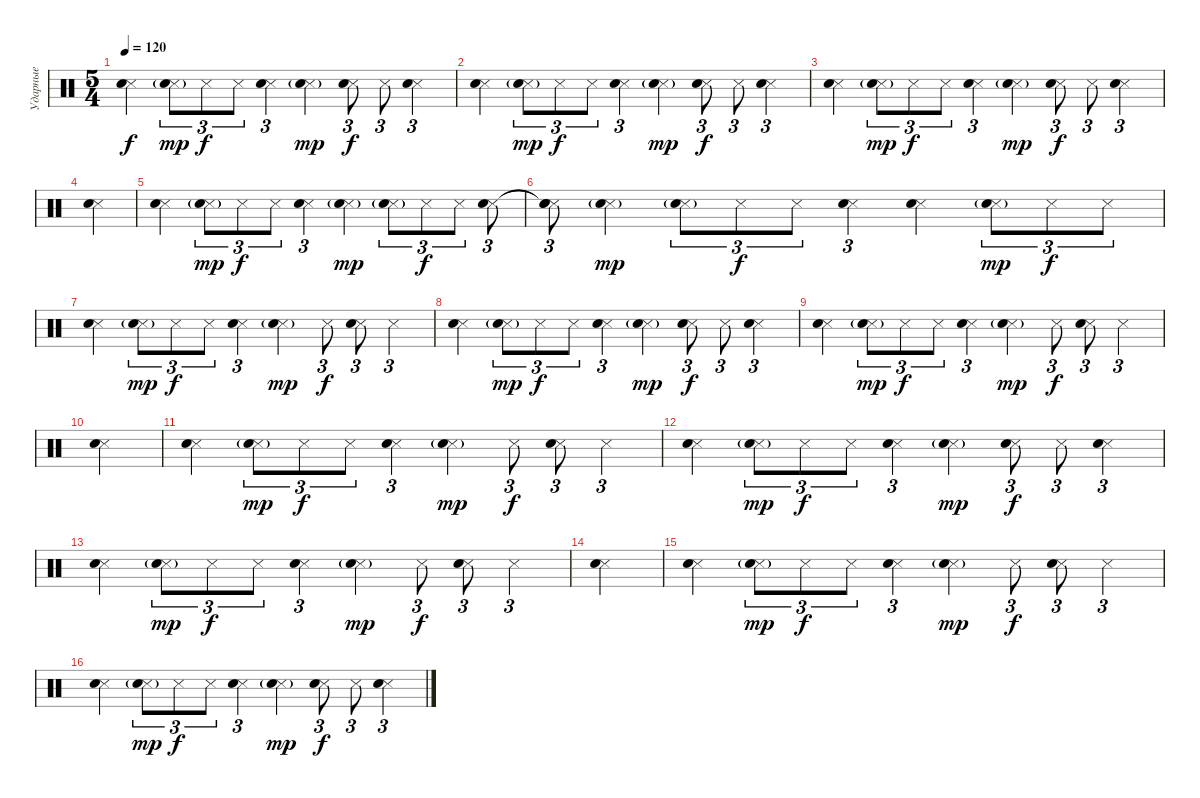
\track ("Ударные" "Ударные") {instrument percussion}
\staff {score}
\articulation defaults
\ts (5 4)
\tempo 120
\clef neutral
\ks c
("Snare (side stick) 3" "Hand Clap (hit)").4{dy f} ("Snare (side stick) 3"{g} "Hand Clap (hit)"{g}).8{tu (3 2) dy mp} "Snare (side stick) 3".8{tu (3 2) dy f} "Snare (side stick) 3".8{tu (3 2)} ("Snare (side stick) 3" "Hand Clap (hit)").4{tu (3 2)} ("Snare (side stick) 3"{g} "Hand Clap (hit)"{g}).4{dy mp} ("Snare (side stick) 3" "Hand Clap (hit)").8{tu (3 2) dy f} "Snare (side stick) 3".8{tu (3 2)} ("Snare (side stick) 3" "Hand Clap (hit)").4{tu (3 2)} |
("Snare (side stick) 3" "Hand Clap (hit)").4 ("Snare (side stick) 3"{g} "Hand Clap (hit)"{g}).8{tu (3 2) dy mp} "Snare (side stick) 3".8{tu (3 2) dy f} "Snare (side stick) 3".8{tu (3 2)} ("Snare (side stick) 3" "Hand Clap (hit)").4{tu (3 2)} ("Snare (side stick) 3"{g} "Hand Clap (hit)"{g}).4{dy mp} ("Snare (side stick) 3" "Hand Clap (hit)").8{tu (3 2) dy f} "Snare (side stick) 3".8{tu (3 2)} ("Snare (side stick) 3" "Hand Clap (hit)").4{tu (3 2)} |
("Snare (side stick) 3" "Hand Clap (hit)").4 ("Snare (side stick) 3"{g} "Hand Clap (hit)"{g}).8{tu (3 2) dy mp} "Snare (side stick) 3".8{tu (3 2) dy f} "Snare (side stick) 3".8{tu (3 2)} ("Snare (side stick) 3" "Hand Clap (hit)").4{tu (3 2)} ("Snare (side stick) 3"{g} "Hand Clap (hit)"{g}).4{dy mp} ("Snare (side stick) 3" "Hand Clap (hit)").8{tu (3 2) dy f} "Snare (side stick) 3".8{tu (3 2)} ("Snare (side stick) 3" "Hand Clap (hit)").4{tu (3 2)} |
("Snare (side stick) 3" "Hand Clap (hit)").4 |
("Snare (side stick) 3" "Hand Clap (hit)").4 ("Snare (side stick) 3"{g} "Hand Clap (hit)"{g}).8{tu (3 2) dy mp} "Snare (side stick) 3".8{tu (3 2) dy f} "Snare (side stick) 3".8{tu (3 2)} ("Snare (side stick) 3" "Hand Clap (hit)").4{tu (3 2)} ("Snare (side stick) 3"{g} "Hand Clap (hit)"{g}).4{dy mp} ("Snare (side stick) 3"{g} "Hand Clap (hit)"{g}).8{tu (3 2)} "Snare (side stick) 3".8{tu (3 2) dy f} "Snare (side stick) 3".8{tu (3 2)} ("Snare (side stick) 3" "Hand Clap (hit)").8{tu (3 2)} |
("Snare (side stick) 3"{t} "Snare (hit)"{t} "Hand Clap (hit)").8{tu (3 2)} ("Snare (side stick) 3"{g} "Hand Clap (hit)"{g}).4{dy mp} ("Snare (side stick) 3"{g} "Hand Clap (hit)"{g}).8{tu (3 2)} "Snare (side stick) 3".8{tu (3 2) dy f} "Snare (side stick) 3".8{tu (3 2)} ("Snare (side stick) 3" "Hand Clap (hit)").4{tu (3 2)} ("Snare (side stick) 3" "Hand Clap (hit)").4 ("Snare (side stick) 3"{g} "Hand Clap (hit)"{g}).8{tu (3 2) dy mp} "Snare (side stick) 3".8{tu (3 2) dy f} "Snare (side stick) 3".8{tu (3 2)} |
("Snare (side stick) 3" "Hand Clap (hit)").4 ("Snare (side stick) 3"{g} "Hand Clap (hit)"{g}).8{tu (3 2) dy mp} "Snare (side stick) 3".8{tu (3 2) dy f} "Snare (side stick) 3".8{tu (3 2)} ("Snare (side stick) 3" "Hand Clap (hit)").4{tu (3 2)} ("Snare (side stick) 3"{g} "Hand Clap (hit)"{g}).4{dy mp} "Snare (side stick) 3".8{tu (3 2) dy f} ("Snare (side stick) 3" "Hand Clap (hit)").8{tu (3 2)} "Snare (side stick) 3".4{tu (3 2)} |
("Snare (side stick) 3" "Hand Clap (hit)").4 ("Snare (side stick) 3"{g} "Hand Clap (hit)"{g}).8{tu (3 2) dy mp} "Snare (side stick) 3".8{tu (3 2) dy f} "Snare (side stick) 3".8{tu (3 2)} ("Snare (side stick) 3" "Hand Clap (hit)").4{tu (3 2)} ("Snare (side stick) 3"{g} "Hand Clap (hit)"{g}).4{dy mp} ("Snare (side stick) 3" "Hand Clap (hit)").8{tu (3 2) dy f} "Snare (side stick) 3".8{tu (3 2)} ("Snare (side stick) 3" "Hand Clap (hit)").4{tu (3 2)} |
("Snare (side stick) 3" "Hand Clap (hit)").4 ("Snare (side stick) 3"{g} "Hand Clap (hit)"{g}).8{tu (3 2) dy mp} "Snare (side stick) 3".8{tu (3 2) dy f} "Snare (side stick) 3".8{tu (3 2)} ("Snare (side stick) 3" "Hand Clap (hit)").4{tu (3 2)} ("Snare (side stick) 3"{g} "Hand Clap (hit)"{g}).4{dy mp} "Snare (side stick) 3".8{tu (3 2) dy f} ("Snare (side stick) 3" "Hand Clap (hit)").8{tu (3 2)} "Snare (side stick) 3".4{tu (3 2)} |
("Snare (side stick) 3" "Hand Clap (hit)").4 |
("Snare (side stick) 3" "Hand Clap (hit)").4 ("Snare (side stick) 3"{g} "Hand Clap (hit)"{g}).8{tu (3 2) dy mp} "Snare (side stick) 3".8{tu (3 2) dy f} "Snare (side stick) 3".8{tu (3 2)} ("Snare (side stick) 3" "Hand Clap (hit)").4{tu (3 2)} ("Snare (side stick) 3"{g} "Hand Clap (hit)"{g}).4{dy mp} "Snare (side stick) 3".8{tu (3 2) dy f} ("Snare (side stick) 3" "Hand Clap (hit)").8{tu (3 2)} "Snare (side stick) 3".4{tu (3 2)} |
("Snare (side stick) 3" "Hand Clap (hit)").4 ("Snare (side stick) 3"{g} "Hand Clap (hit)"{g}).8{tu (3 2) dy mp} "Snare (side stick) 3".8{tu (3 2) dy f} "Snare (side stick) 3".8{tu (3 2)} ("Snare (side stick) 3" "Hand Clap (hit)").4{tu (3 2)} ("Snare (side stick) 3"{g} "Hand Clap (hit)"{g}).4{dy mp} ("Snare (side stick) 3" "Hand Clap (hit)").8{tu (3 2) dy f} "Snare (side stick) 3".8{tu (3 2)} ("Snare (side stick) 3" "Hand Clap (hit)").4{tu (3 2)} |
("Snare (side stick) 3" "Hand Clap (hit)").4 ("Snare (side stick) 3"{g} "Hand Clap (hit)"{g}).8{tu (3 2) dy mp} "Snare (side stick) 3".8{tu (3 2) dy f} "Snare (side stick) 3".8{tu (3 2)} ("Snare (side stick) 3" "Hand Clap (hit)").4{tu (3 2)} ("Snare (side stick) 3"{g} "Hand Clap (hit)"{g}).4{dy mp} "Snare (side stick) 3".8{tu (3 2) dy f} ("Snare (side stick) 3" "Hand Clap (hit)").8{tu (3 2)} "Snare (side stick) 3".4{tu (3 2)} |
("Snare (side stick) 3" "Hand Clap (hit)").4 |
("Snare (side stick) 3" "Hand Clap (hit)").4 ("Snare (side stick) 3"{g} "Hand Clap (hit)"{g}).8{tu (3 2) dy mp} "Snare (side stick) 3".8{tu (3 2) dy f} "Snare (side stick) 3".8{tu (3 2)} ("Snare (side stick) 3" "Hand Clap (hit)").4{tu (3 2)} ("Snare (side stick) 3"{g} "Hand Clap (hit)"{g}).4{dy mp} "Snare (side stick) 3".8{tu (3 2) dy f} ("Snare (side stick) 3" "Hand Clap (hit)").8{tu (3 2)} "Snare (side stick) 3".4{tu (3 2)} |
("Snare (side stick) 3" "Hand Clap (hit)").4 ("Snare (side stick) 3"{g} "Hand Clap (hit)"{g}).8{tu (3 2) dy mp} "Snare (side stick) 3".8{tu (3 2) dy f} "Snare (side stick) 3".8{tu (3 2)} ("Snare (side stick) 3" "Hand Clap (hit)").4{tu (3 2)} ("Snare (side stick) 3"{g} "Hand Clap (hit)"{g}).4{dy mp} ("Snare (side stick) 3" "Hand Clap (hit)").8{tu (3 2) dy f} "Snare (side stick) 3".8{tu (3 2)} ("Snare (side stick) 3" "Hand Clap (hit)").4{tu (3 2)}
